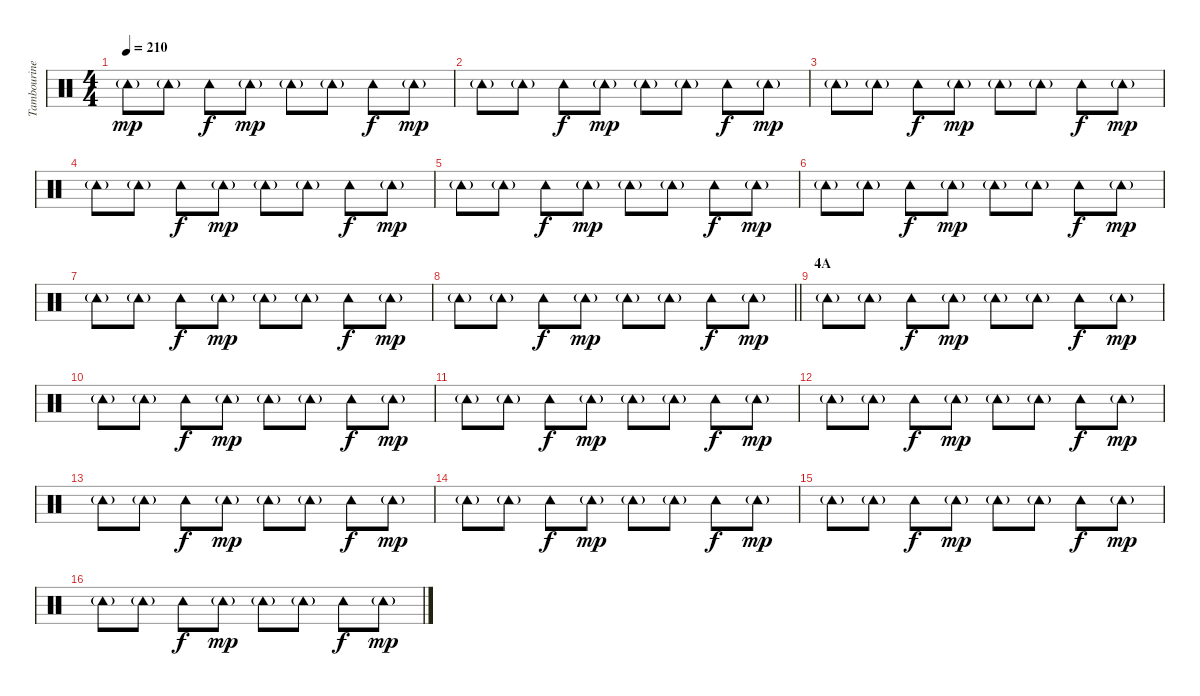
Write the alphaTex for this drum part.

\track ("Tambourine" "Tambourine") {instrument percussion}
\staff {score}
\articulation defaults
\ts (4 4)
\tempo 210
\clef neutral
\ks c "Tambourine (hit)"{g}.8{dy mp} "Tambourine (hit)"{g}.8 "Tambourine (hit)".8{dy f} "Tambourine (hit)"{g}.8{dy mp} "Tambourine (hit)"{g}.8 "Tambourine (hit)"{g}.8 "Tambourine (hit)".8{dy f} "Tambourine (hit)"{g}.8{dy mp}
|
"Tambourine (hit)"{g}.8 "Tambourine (hit)"{g}.8 "Tambourine (hit)".8{dy f} "Tambourine (hit)"{g}.8{dy mp} "Tambourine (hit)"{g}.8 "Tambourine (hit)"{g}.8 "Tambourine (hit)".8{dy f} "Tambourine (hit)"{g}.8{dy mp} |
"Tambourine (hit)"{g}.8 "Tambourine (hit)"{g}.8 "Tambourine (hit)".8{dy f} "Tambourine (hit)"{g}.8{dy mp} "Tambourine (hit)"{g}.8 "Tambourine (hit)"{g}.8 "Tambourine (hit)".8{dy f} "Tambourine (hit)"{g}.8{dy mp} |
"Tambourine (hit)"{g}.8 "Tambourine (hit)"{g}.8 "Tambourine (hit)".8{dy f} "Tambourine (hit)"{g}.8{dy mp} "Tambourine (hit)"{g}.8 "Tambourine (hit)"{g}.8 "Tambourine (hit)".8{dy f} "Tambourine (hit)"{g}.8{dy mp} |
"Tambourine (hit)"{g}.8 "Tambourine (hit)"{g}.8 "Tambourine (hit)".8{dy f} "Tambourine (hit)"{g}.8{dy mp} "Tambourine (hit)"{g}.8 "Tambourine (hit)"{g}.8 "Tambourine (hit)".8{dy f} "Tambourine (hit)"{g}.8{dy mp} |
"Tambourine (hit)"{g}.8 "Tambourine (hit)"{g}.8 "Tambourine (hit)".8{dy f} "Tambourine (hit)"{g}.8{dy mp} "Tambourine (hit)"{g}.8 "Tambourine (hit)"{g}.8 "Tambourine (hit)".8{dy f} "Tambourine (hit)"{g}.8{dy mp} |
"Tambourine (hit)"{g}.8 "Tambourine (hit)"{g}.8 "Tambourine (hit)".8{dy f} "Tambourine (hit)"{g}.8{dy mp} "Tambourine (hit)"{g}.8 "Tambourine (hit)"{g}.8 "Tambourine (hit)".8{dy f} "Tambourine (hit)"{g}.8{dy mp} |
\barLineRight lightlight "Tambourine (hit)"{g}.8 "Tambourine (hit)"{g}.8 "Tambourine (hit)".8{dy f} "Tambourine (hit)"{g}.8{dy mp} "Tambourine (hit)"{g}.8 "Tambourine (hit)"{g}.8 "Tambourine (hit)".8{dy f} "Tambourine (hit)"{g}.8{dy mp}
|
\section ("" "4A")
"Tambourine (hit)"{g}.8 "Tambourine (hit)"{g}.8 "Tambourine (hit)".8{dy f} "Tambourine (hit)"{g}.8{dy mp} "Tambourine (hit)"{g}.8 "Tambourine (hit)"{g}.8 "Tambourine (hit)".8{dy f} "Tambourine (hit)"{g}.8{dy mp} |
"Tambourine (hit)"{g}.8 "Tambourine (hit)"{g}.8 "Tambourine (hit)".8{dy f} "Tambourine (hit)"{g}.8{dy mp} "Tambourine (hit)"{g}.8 "Tambourine (hit)"{g}.8 "Tambourine (hit)".8{dy f} "Tambourine (hit)"{g}.8{dy mp} |
"Tambourine (hit)"{g}.8 "Tambourine (hit)"{g}.8 "Tambourine (hit)".8{dy f} "Tambourine (hit)"{g}.8{dy mp} "Tambourine (hit)"{g}.8 "Tambourine (hit)"{g}.8 "Tambourine (hit)".8{dy f} "Tambourine (hit)"{g}.8{dy mp} |
"Tambourine (hit)"{g}.8 "Tambourine (hit)"{g}.8 "Tambourine (hit)".8{dy f} "Tambourine (hit)"{g}.8{dy mp} "Tambourine (hit)"{g}.8 "Tambourine (hit)"{g}.8 "Tambourine (hit)".8{dy f} "Tambourine (hit)"{g}.8{dy mp} |
"Tambourine (hit)"{g}.8 "Tambourine (hit)"{g}.8 "Tambourine (hit)".8{dy f} "Tambourine (hit)"{g}.8{dy mp} "Tambourine (hit)"{g}.8 "Tambourine (hit)"{g}.8 "Tambourine (hit)".8{dy f} "Tambourine (hit)"{g}.8{dy mp} |
"Tambourine (hit)"{g}.8 "Tambourine (hit)"{g}.8 "Tambourine (hit)".8{dy f} "Tambourine (hit)"{g}.8{dy mp} "Tambourine (hit)"{g}.8 "Tambourine (hit)"{g}.8 "Tambourine (hit)".8{dy f} "Tambourine (hit)"{g}.8{dy mp} |
"Tambourine (hit)"{g}.8 "Tambourine (hit)"{g}.8 "Tambourine (hit)".8{dy f} "Tambourine (hit)"{g}.8{dy mp} "Tambourine (hit)"{g}.8 "Tambourine (hit)"{g}.8 "Tambourine (hit)".8{dy f} "Tambourine (hit)"{g}.8{dy mp} |
"Tambourine (hit)"{g}.8 "Tambourine (hit)"{g}.8 "Tambourine (hit)".8{dy f} "Tambourine (hit)"{g}.8{dy mp} "Tambourine (hit)"{g}.8 "Tambourine (hit)"{g}.8 "Tambourine (hit)".8{dy f} "Tambourine (hit)"{g}.8{dy mp}
